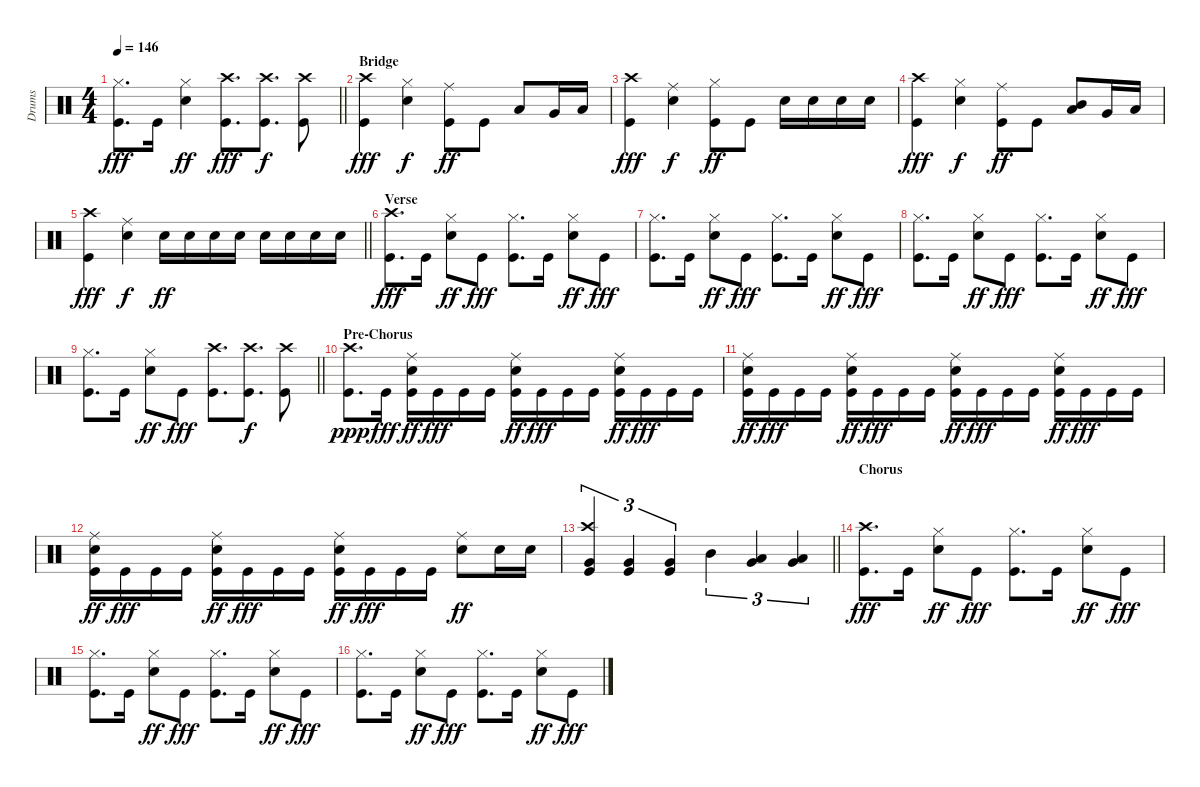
\track ("Drums" "Drums") {instrument percussion}
\staff {score}
\articulation defaults
\ts (4 4)
\tempo 146
\clef neutral
\barLineRight lightlight
\ks c
("Kick (hit)" "Hi-Hat (closed)").8{d dy fff} "Kick (hit)".16 ("Snare (hit) 2" "Hi-Hat (closed)").4{dy ff} ("Kick (hit)" "Crash high (hit)").8{d dy fff} ("Crash high (hit)" "Kick (hit)").8{d dy f} ("Crash high (hit)" "Kick (hit)").8 |
\section ("" "Bridge")
("Kick (hit)" "Crash high (hit)").4{dy fff} ("Snare (hit) 2" "Hi-Hat (closed)").4{dy f} ("Ride (middle)" "Kick (hit)").8{dy ff} "Kick (hit)".8 "Low Tom (hit)".8 "Very Low Tom (hit)".16 "Low Floor Tom (hit)".16 |
("Kick (hit)" "Crash high (hit)").4{dy fff} ("Snare (hit) 2" "Ride (middle)").4{dy f} ("Hi-Hat (closed)" "Kick (hit)").8{dy ff} "Kick (hit)".8 "Snare (hit) 2".16 "Snare (hit) 2".16 "Snare (hit) 2".16 "Snare (hit) 2".16 |
("Kick (hit)" "Crash high (hit)").4{dy fff} ("Snare (hit) 2" "Hi-Hat (closed)").4{dy f} ("Ride (middle)" "Kick (hit)").8{dy ff} "Kick (hit)".8 ("Mid Tom (hit)" "Low Tom (hit)").8 "Very Low Tom (hit)".16 "Low Floor Tom (hit)".16 |
\barLineRight lightlight
("Kick (hit)" "Crash high (hit)").4{dy fff} ("Snare (hit) 2" "Ride (middle)").4{dy f} "Snare (hit) 2".16{dy ff} "Snare (hit) 2".16 "Snare (hit) 2".16 "Snare (hit) 2".16 "Snare (hit) 2".16 "Snare (hit) 2".16 "Snare (hit) 2".16 "Snare (hit) 2".16 |
\section ("" "Verse")
("Kick (hit)" "Crash high (hit)").8{d dy fff} "Kick (hit)".16 ("Snare (hit) 2" "Hi-Hat (closed)").8{dy ff} "Kick (hit)".8{dy fff} ("Kick (hit)" "Hi-Hat (closed)").8{d} "Kick (hit)".16 ("Snare (hit) 2" "Hi-Hat (closed)").8{dy ff} "Kick (hit)".8{dy fff} |
("Kick (hit)" "Hi-Hat (closed)").8{d} "Kick (hit)".16 ("Snare (hit) 2" "Hi-Hat (closed)").8{dy ff} "Kick (hit)".8{dy fff} ("Kick (hit)" "Hi-Hat (closed)").8{d} "Kick (hit)".16 ("Snare (hit) 2" "Hi-Hat (closed)").8{dy ff} "Kick (hit)".8{dy fff} |
("Kick (hit)" "Hi-Hat (closed)").8{d} "Kick (hit)".16 ("Snare (hit) 2" "Hi-Hat (closed)").8{dy ff} "Kick (hit)".8{dy fff} ("Kick (hit)" "Hi-Hat (closed)").8{d} "Kick (hit)".16 ("Snare (hit) 2" "Hi-Hat (closed)").8{dy ff} "Kick (hit)".8{dy fff} |
\barLineRight lightlight
("Kick (hit)" "Hi-Hat (closed)").8{d} "Kick (hit)".16 ("Snare (hit) 2" "Hi-Hat (closed)").8{dy ff} "Kick (hit)".8{dy fff} ("Kick (hit)" "Crash high (hit)").8{d} ("Crash high (hit)" "Kick (hit)").8{d dy f} ("Crash high (hit)" "Kick (hit)").8 |
\section ("" "Pre-Chorus")
("Kick (hit)" "Crash high (hit)").8{d dy ppp} "Kick (hit)".16{dy fff} ("Kick (hit)" "Ride (middle)" "Snare (hit) 2").16{dy ff} "Kick (hit)".16{dy fff} "Kick (hit)".16 "Kick (hit)".16 ("Kick (hit)" "Ride (middle)" "Snare (hit) 2").16{dy ff} "Kick (hit)".16{dy fff} "Kick (hit)".16 "Kick (hit)".16 ("Kick (hit)" "Ride (middle)" "Snare (hit) 2").16{dy ff} "Kick (hit)".16{dy fff} "Kick (hit)".16 "Kick (hit)".16 |
("Kick (hit)" "Ride (middle)" "Snare (hit) 2").16{dy ff} "Kick (hit)".16{dy fff} "Kick (hit)".16 "Kick (hit)".16 ("Kick (hit)" "Ride (middle)" "Snare (hit) 2").16{dy ff} "Kick (hit)".16{dy fff} "Kick (hit)".16 "Kick (hit)".16 ("Kick (hit)" "Ride (middle)" "Snare (hit) 2").16{dy ff} "Kick (hit)".16{dy fff} "Kick (hit)".16 "Kick (hit)".16 ("Kick (hit)" "Ride (middle)" "Snare (hit) 2").16{dy ff} "Kick (hit)".16{dy fff} "Kick (hit)".16 "Kick (hit)".16 |
("Kick (hit)" "Ride (middle)" "Snare (hit) 2").16{dy ff} "Kick (hit)".16{dy fff} "Kick (hit)".16 "Kick (hit)".16 ("Kick (hit)" "Ride (middle)" "Snare (hit) 2").16{dy ff} "Kick (hit)".16{dy fff} "Kick (hit)".16 "Kick (hit)".16 ("Kick (hit)" "Ride (middle)" "Snare (hit) 2").16{dy ff} "Kick (hit)".16{dy fff} "Kick (hit)".16 "Kick (hit)".16 ("Snare (hit) 2" "Ride (middle)").8{dy ff} "Snare (hit) 2".16 "Snare (hit) 2".16 |
\barLineRight lightlight
("Kick (hit)" "Crash high (hit)" "Very Low Tom (hit)").4{tu (3 2)} ("Kick (hit)" "Very Low Tom (hit)").4{tu (3 2)} ("Kick (hit)" "Very Low Tom (hit)").4{tu (3 2)} "Mid Tom (hit)".4{tu (3 2)} ("Very Low Tom (hit)" "Low Tom (hit)").4{tu (3 2)} ("Low Floor Tom (hit)" "Very Low Tom (hit)").4{tu (3 2)} |
\section ("" "Chorus")
("Kick (hit)" "Crash high (hit)").8{d dy fff} "Kick (hit)".16 ("Snare (hit) 2" "Hi-Hat (closed)").8{dy ff} "Kick (hit)".8{dy fff} ("Kick (hit)" "Hi-Hat (closed)").8{d} "Kick (hit)".16 ("Snare (hit) 2" "Hi-Hat (closed)").8{dy ff} "Kick (hit)".8{dy fff} |
("Kick (hit)" "Hi-Hat (closed)").8{d} "Kick (hit)".16 ("Snare (hit) 2" "Hi-Hat (closed)").8{dy ff} "Kick (hit)".8{dy fff} ("Kick (hit)" "Hi-Hat (closed)").8{d} "Kick (hit)".16 ("Snare (hit) 2" "Hi-Hat (closed)").8{dy ff} "Kick (hit)".8{dy fff} |
("Kick (hit)" "Hi-Hat (closed)").8{d} "Kick (hit)".16 ("Snare (hit) 2" "Hi-Hat (closed)").8{dy ff} "Kick (hit)".8{dy fff} ("Kick (hit)" "Hi-Hat (closed)").8{d} "Kick (hit)".16 ("Snare (hit) 2" "Hi-Hat (closed)").8{dy ff} "Kick (hit)".8{dy fff}
